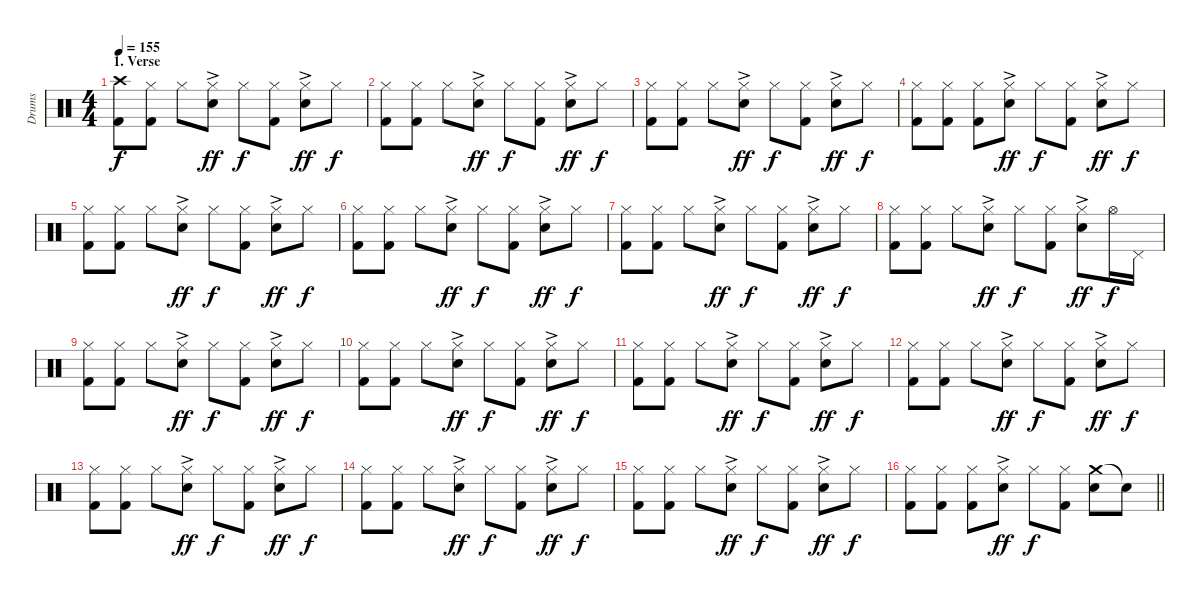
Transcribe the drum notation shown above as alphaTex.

\track ("Drums" "Drums") {instrument percussion}
\staff {score}
\articulation defaults
\ts (4 4)
\section ("" "1. Verse")
\tempo 155
\clef neutral
\ks c
("Crash high (hit)" "Kick (hit) 2").8{dy f} ("Hi-Hat (closed)" "Kick (hit) 2").8 "Hi-Hat (closed)".8 ("Hi-Hat (closed)"{ac} "Electric Snare (hit)").8{dy ff} "Hi-Hat (closed)".8{dy f} ("Hi-Hat (closed)" "Kick (hit) 2").8 ("Hi-Hat (closed)"{ac} "Electric Snare (hit)").8{dy ff} "Hi-Hat (closed)".8{dy f} |
("Hi-Hat (closed)" "Kick (hit) 2").8 ("Hi-Hat (closed)" "Kick (hit) 2").8 "Hi-Hat (closed)".8 ("Hi-Hat (closed)"{ac} "Electric Snare (hit)").8{dy ff} "Hi-Hat (closed)".8{dy f} ("Hi-Hat (closed)" "Kick (hit) 2").8 ("Hi-Hat (closed)"{ac} "Electric Snare (hit)").8{dy ff} "Hi-Hat (closed)".8{dy f} |
("Hi-Hat (closed)" "Kick (hit) 2").8 ("Hi-Hat (closed)" "Kick (hit) 2").8 "Hi-Hat (closed)".8 ("Hi-Hat (closed)"{ac} "Electric Snare (hit)").8{dy ff} "Hi-Hat (closed)".8{dy f} ("Hi-Hat (closed)" "Kick (hit) 2").8 ("Hi-Hat (closed)"{ac} "Electric Snare (hit)").8{dy ff} "Hi-Hat (closed)".8{dy f} |
("Hi-Hat (closed)" "Kick (hit) 2").8 ("Hi-Hat (closed)" "Kick (hit) 2").8 ("Hi-Hat (closed)" "Kick (hit) 2").8 ("Hi-Hat (closed)"{ac} "Electric Snare (hit)").8{dy ff} "Hi-Hat (closed)".8{dy f} ("Hi-Hat (closed)" "Kick (hit) 2").8 ("Hi-Hat (closed)"{ac} "Electric Snare (hit)").8{dy ff} "Hi-Hat (closed)".8{dy f} |
("Hi-Hat (closed)" "Kick (hit) 2").8 ("Hi-Hat (closed)" "Kick (hit) 2").8 "Hi-Hat (closed)".8 ("Hi-Hat (closed)"{ac} "Electric Snare (hit)").8{dy ff} "Hi-Hat (closed)".8{dy f} ("Hi-Hat (closed)" "Kick (hit) 2").8 ("Hi-Hat (closed)"{ac} "Electric Snare (hit)").8{dy ff} "Hi-Hat (closed)".8{dy f} |
("Hi-Hat (closed)" "Kick (hit) 2").8 ("Hi-Hat (closed)" "Kick (hit) 2").8 "Hi-Hat (closed)".8 ("Hi-Hat (closed)"{ac} "Electric Snare (hit)").8{dy ff} "Hi-Hat (closed)".8{dy f} ("Hi-Hat (closed)" "Kick (hit) 2").8 ("Hi-Hat (closed)"{ac} "Electric Snare (hit)").8{dy ff} "Hi-Hat (closed)".8{dy f} |
("Hi-Hat (closed)" "Kick (hit) 2").8 ("Hi-Hat (closed)" "Kick (hit) 2").8 "Hi-Hat (closed)".8 ("Hi-Hat (closed)"{ac} "Electric Snare (hit)").8{dy ff} "Hi-Hat (closed)".8{dy f} ("Hi-Hat (closed)" "Kick (hit) 2").8 ("Hi-Hat (closed)"{ac} "Electric Snare (hit)").8{dy ff} "Hi-Hat (closed)".8{dy f} |
("Hi-Hat (closed)" "Kick (hit) 2").8 ("Hi-Hat (closed)" "Kick (hit) 2").8 "Hi-Hat (closed)".8 ("Hi-Hat (closed)"{ac} "Electric Snare (hit)").8{dy ff} "Hi-Hat (closed)".8{dy f} ("Hi-Hat (closed)" "Kick (hit) 2").8 ("Hi-Hat (closed)"{ac} "Electric Snare (hit)").8{dy ff} "Hi-Hat (open)".16{dy f} "Pedal Hi-Hat (hit)".16 |
("Hi-Hat (closed)" "Kick (hit) 2").8 ("Hi-Hat (closed)" "Kick (hit) 2").8 "Hi-Hat (closed)".8 ("Hi-Hat (closed)"{ac} "Electric Snare (hit)").8{dy ff} "Hi-Hat (closed)".8{dy f} ("Hi-Hat (closed)" "Kick (hit) 2").8 ("Hi-Hat (closed)"{ac} "Electric Snare (hit)").8{dy ff} "Hi-Hat (closed)".8{dy f} |
("Hi-Hat (closed)" "Kick (hit) 2").8 ("Hi-Hat (closed)" "Kick (hit) 2").8 "Hi-Hat (closed)".8 ("Hi-Hat (closed)"{ac} "Electric Snare (hit)").8{dy ff} "Hi-Hat (closed)".8{dy f} ("Hi-Hat (closed)" "Kick (hit) 2").8 ("Hi-Hat (closed)"{ac} "Electric Snare (hit)").8{dy ff} "Hi-Hat (closed)".8{dy f} |
("Hi-Hat (closed)" "Kick (hit) 2").8 ("Hi-Hat (closed)" "Kick (hit) 2").8 "Hi-Hat (closed)".8 ("Hi-Hat (closed)"{ac} "Electric Snare (hit)").8{dy ff} "Hi-Hat (closed)".8{dy f} ("Hi-Hat (closed)" "Kick (hit) 2").8 ("Hi-Hat (closed)"{ac} "Electric Snare (hit)").8{dy ff} "Hi-Hat (closed)".8{dy f} |
("Hi-Hat (closed)" "Kick (hit) 2").8 ("Hi-Hat (closed)" "Kick (hit) 2").8 "Hi-Hat (closed)".8 ("Hi-Hat (closed)"{ac} "Electric Snare (hit)").8{dy ff} "Hi-Hat (closed)".8{dy f} ("Hi-Hat (closed)" "Kick (hit) 2").8 ("Hi-Hat (closed)"{ac} "Electric Snare (hit)").8{dy ff} "Hi-Hat (closed)".8{dy f} |
("Hi-Hat (closed)" "Kick (hit) 2").8 ("Hi-Hat (closed)" "Kick (hit) 2").8 "Hi-Hat (closed)".8 ("Hi-Hat (closed)"{ac} "Electric Snare (hit)").8{dy ff} "Hi-Hat (closed)".8{dy f} ("Hi-Hat (closed)" "Kick (hit) 2").8 ("Hi-Hat (closed)"{ac} "Electric Snare (hit)").8{dy ff} "Hi-Hat (closed)".8{dy f} |
("Hi-Hat (closed)" "Kick (hit) 2").8 ("Hi-Hat (closed)" "Kick (hit) 2").8 "Hi-Hat (closed)".8 ("Hi-Hat (closed)"{ac} "Electric Snare (hit)").8{dy ff} "Hi-Hat (closed)".8{dy f} ("Hi-Hat (closed)" "Kick (hit) 2").8 ("Hi-Hat (closed)"{ac} "Electric Snare (hit)").8{dy ff} "Hi-Hat (closed)".8{dy f} |
("Hi-Hat (closed)" "Kick (hit) 2").8 ("Hi-Hat (closed)" "Kick (hit) 2").8 "Hi-Hat (closed)".8 ("Hi-Hat (closed)"{ac} "Electric Snare (hit)").8{dy ff} "Hi-Hat (closed)".8{dy f} ("Hi-Hat (closed)" "Kick (hit) 2").8 ("Hi-Hat (closed)"{ac} "Electric Snare (hit)").8{dy ff} "Hi-Hat (closed)".8{dy f} |
\barLineRight lightlight
("Hi-Hat (closed)" "Kick (hit) 2").8 ("Hi-Hat (closed)" "Kick (hit) 2").8 ("Hi-Hat (closed)" "Kick (hit) 2").8 ("Hi-Hat (closed)"{ac} "Electric Snare (hit)").8{dy ff} "Hi-Hat (closed)".8{dy f} ("Hi-Hat (closed)" "Kick (hit) 2").8 ("Crash medium (hit)" "Electric Snare (hit)").8 "Snare (hit)"{t}.8
